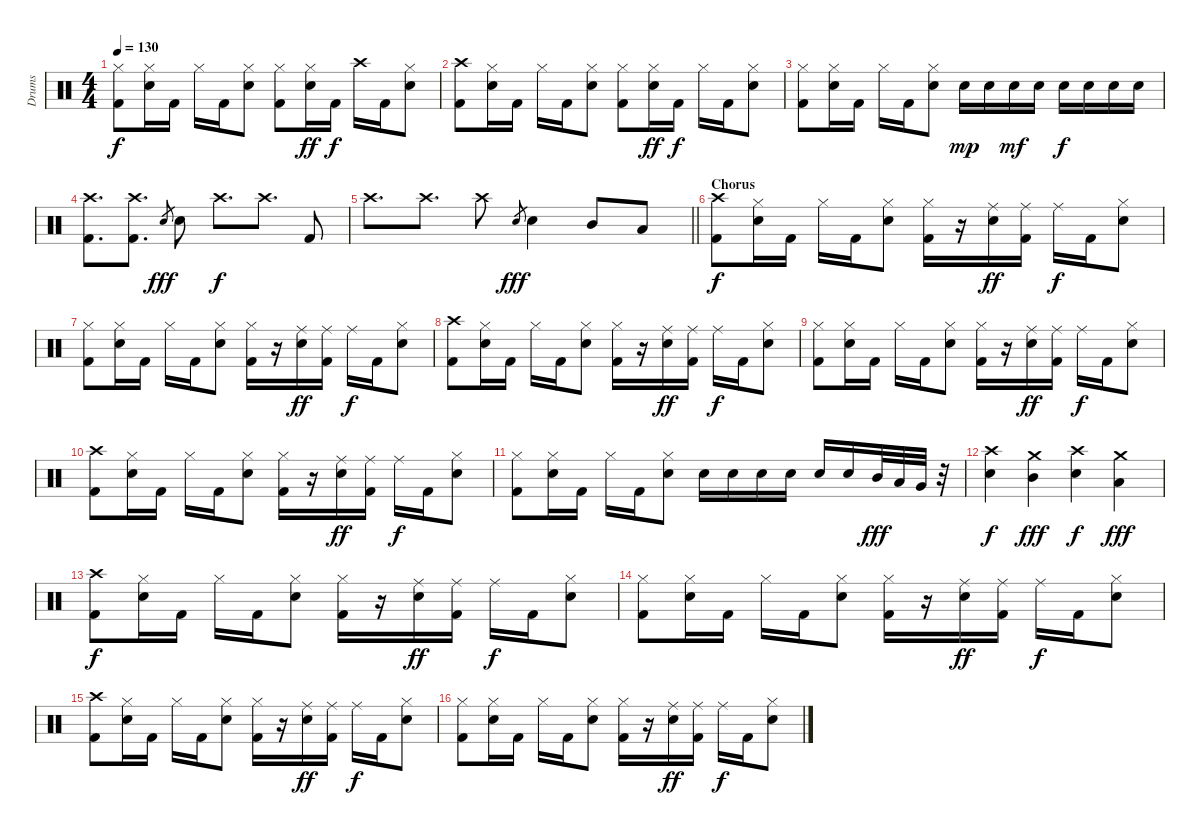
\track ("Drums" "Drums") {instrument percussion}
\staff {score}
\articulation defaults
\ts (4 4)
\tempo 130
\clef neutral
\ks c
("Hi-Hat (closed)" "Kick (hit) 2").8{dy f} ("Hi-Hat (closed)" "Snare (hit) 2").16 "Kick (hit) 2".16 "Hi-Hat (closed)".16 "Kick (hit) 2".16 ("Hi-Hat (closed)" "Snare (hit) 2").8 ("Hi-Hat (closed)" "Kick (hit) 2").8 ("Hi-Hat (closed)" "Snare (hit) 2").16{dy ff} "Kick (hit) 2".16{dy f} "Crash high (hit)".16 "Kick (hit) 2".16 ("Hi-Hat (closed)" "Snare (hit) 2").8 |
("Crash high (hit)" "Kick (hit) 2").8 ("Hi-Hat (closed)" "Snare (hit) 2").16 "Kick (hit) 2".16 "Hi-Hat (closed)".16 "Kick (hit) 2".16 ("Hi-Hat (closed)" "Snare (hit) 2").8 ("Hi-Hat (closed)" "Kick (hit) 2").8 ("Hi-Hat (closed)" "Snare (hit) 2").16{dy ff} "Kick (hit) 2".16{dy f} "Hi-Hat (closed)".16 "Kick (hit) 2".16 ("Hi-Hat (closed)" "Snare (hit) 2").8 |
("Hi-Hat (closed)" "Kick (hit) 2").8 ("Hi-Hat (closed)" "Snare (hit) 2").16 "Kick (hit) 2".16 "Hi-Hat (closed)".16 "Kick (hit) 2".16 ("Hi-Hat (closed)" "Snare (hit) 2").8 "Snare (hit) 2".16{dy mp} "Snare (hit) 2".16 "Snare (hit) 2".16{dy mf} "Snare (hit) 2".16 "Snare (hit) 2".16{dy f} "Snare (hit) 2".16 "Snare (hit) 2".16 "Snare (hit) 2".16 |
("Crash high (hit)" "Kick (hit) 2").8{d} ("Crash high (hit)" "Kick (hit) 2").8{d} "Snare (hit) 2".8{gr dy fff} "Snare (hit) 2".8 "Crash high (hit)".8{d dy f} "Crash high (hit)".8{d} "Kick (hit) 2".8 |
\barLineRight lightlight "Crash high (hit)".8{d} "Crash high (hit)".8{d} "Crash high (hit)".8 "Snare (hit) 2".8{gr dy fff} "Snare (hit) 2".4 "Mid Tom (hit)".8 "Low Tom (hit)".8
|
\section ("" "Chorus")
("Crash high (hit)" "Kick (hit) 2").8{dy f} ("Hi-Hat (closed)" "Snare (hit) 2").16 "Kick (hit) 2".16 "Hi-Hat (closed)".16 "Kick (hit) 2".16 ("Hi-Hat (closed)" "Snare (hit) 2").8 ("Hi-Hat (closed)" "Kick (hit) 2").16 r.16 ("Ride (middle)" "Snare (hit) 2").16{dy ff} ("Ride (middle)" "Kick (hit) 2").16 "Ride (middle)".16{dy f} "Kick (hit) 2".16 ("Hi-Hat (closed)" "Snare (hit) 2").8 |
("Hi-Hat (closed)" "Kick (hit) 2").8 ("Hi-Hat (closed)" "Snare (hit) 2").16 "Kick (hit) 2".16 "Hi-Hat (closed)".16 "Kick (hit) 2".16 ("Hi-Hat (closed)" "Snare (hit) 2").8 ("Hi-Hat (closed)" "Kick (hit) 2").16 r.16 ("Ride (middle)" "Snare (hit) 2").16{dy ff} ("Ride (middle)" "Kick (hit) 2").16 "Ride (middle)".16{dy f} "Kick (hit) 2".16 ("Hi-Hat (closed)" "Snare (hit) 2").8 |
("Crash high (hit)" "Kick (hit) 2").8 ("Hi-Hat (closed)" "Snare (hit) 2").16 "Kick (hit) 2".16 "Hi-Hat (closed)".16 "Kick (hit) 2".16 ("Hi-Hat (closed)" "Snare (hit) 2").8 ("Hi-Hat (closed)" "Kick (hit) 2").16 r.16 ("Ride (middle)" "Snare (hit) 2").16{dy ff} ("Ride (middle)" "Kick (hit) 2").16 "Ride (middle)".16{dy f} "Kick (hit) 2".16 ("Hi-Hat (closed)" "Snare (hit) 2").8 |
("Hi-Hat (closed)" "Kick (hit) 2").8 ("Hi-Hat (closed)" "Snare (hit) 2").16 "Kick (hit) 2".16 "Hi-Hat (closed)".16 "Kick (hit) 2".16 ("Hi-Hat (closed)" "Snare (hit) 2").8 ("Hi-Hat (closed)" "Kick (hit) 2").16 r.16 ("Ride (middle)" "Snare (hit) 2").16{dy ff} ("Ride (middle)" "Kick (hit) 2").16 "Ride (middle)".16{dy f} "Kick (hit) 2".16 ("Hi-Hat (closed)" "Snare (hit) 2").8 |
("Crash high (hit)" "Kick (hit) 2").8 ("Hi-Hat (closed)" "Snare (hit) 2").16 "Kick (hit) 2".16 "Hi-Hat (closed)".16 "Kick (hit) 2".16 ("Hi-Hat (closed)" "Snare (hit) 2").8 ("Hi-Hat (closed)" "Kick (hit) 2").16 r.16 ("Ride (middle)" "Snare (hit) 2").16{dy ff} ("Ride (middle)" "Kick (hit) 2").16 "Ride (middle)".16{dy f} "Kick (hit) 2".16 ("Hi-Hat (closed)" "Snare (hit) 2").8 |
("Hi-Hat (closed)" "Kick (hit) 2").8 ("Hi-Hat (closed)" "Snare (hit) 2").16 "Kick (hit) 2".16 "Hi-Hat (closed)".16 "Kick (hit) 2".16 ("Hi-Hat (closed)" "Snare (hit) 2").8 "Snare (hit) 2".16 "Snare (hit) 2".16 "Snare (hit) 2".16 "Snare (hit) 2".16 "Snare (hit) 2".16 "Snare (hit) 2".16 "Mid Tom (hit)".32{dy fff} "Low Tom (hit)".32 "Very Low Tom (hit)".32 r.32 |
("Crash high (hit)" "Snare (hit) 2").4{dy f} ("Crash medium (hit)" "Mid Tom (hit)").4{dy fff} ("Crash high (hit)" "Snare (hit) 2").4{dy f} ("Crash medium (hit)" "Low Tom (hit)").4{dy fff} |
("Crash high (hit)" "Kick (hit) 2").8{dy f} ("Hi-Hat (closed)" "Snare (hit) 2").16 "Kick (hit) 2".16 "Hi-Hat (closed)".16 "Kick (hit) 2".16 ("Hi-Hat (closed)" "Snare (hit) 2").8 ("Hi-Hat (closed)" "Kick (hit) 2").16 r.16 ("Ride (middle)" "Snare (hit) 2").16{dy ff} ("Ride (middle)" "Kick (hit) 2").16 "Ride (middle)".16{dy f} "Kick (hit) 2".16 ("Hi-Hat (closed)" "Snare (hit) 2").8 |
("Hi-Hat (closed)" "Kick (hit) 2").8 ("Hi-Hat (closed)" "Snare (hit) 2").16 "Kick (hit) 2".16 "Hi-Hat (closed)".16 "Kick (hit) 2".16 ("Hi-Hat (closed)" "Snare (hit) 2").8 ("Hi-Hat (closed)" "Kick (hit) 2").16 r.16 ("Ride (middle)" "Snare (hit) 2").16{dy ff} ("Ride (middle)" "Kick (hit) 2").16 "Ride (middle)".16{dy f} "Kick (hit) 2".16 ("Hi-Hat (closed)" "Snare (hit) 2").8 |
("Crash high (hit)" "Kick (hit) 2").8 ("Hi-Hat (closed)" "Snare (hit) 2").16 "Kick (hit) 2".16 "Hi-Hat (closed)".16 "Kick (hit) 2".16 ("Hi-Hat (closed)" "Snare (hit) 2").8 ("Hi-Hat (closed)" "Kick (hit) 2").16 r.16 ("Ride (middle)" "Snare (hit) 2").16{dy ff} ("Ride (middle)" "Kick (hit) 2").16 "Ride (middle)".16{dy f} "Kick (hit) 2".16 ("Hi-Hat (closed)" "Snare (hit) 2").8 |
("Hi-Hat (closed)" "Kick (hit) 2").8 ("Hi-Hat (closed)" "Snare (hit) 2").16 "Kick (hit) 2".16 "Hi-Hat (closed)".16 "Kick (hit) 2".16 ("Hi-Hat (closed)" "Snare (hit) 2").8 ("Hi-Hat (closed)" "Kick (hit) 2").16 r.16 ("Ride (middle)" "Snare (hit) 2").16{dy ff} ("Ride (middle)" "Kick (hit) 2").16 "Ride (middle)".16{dy f} "Kick (hit) 2".16 ("Hi-Hat (closed)" "Snare (hit) 2").8
